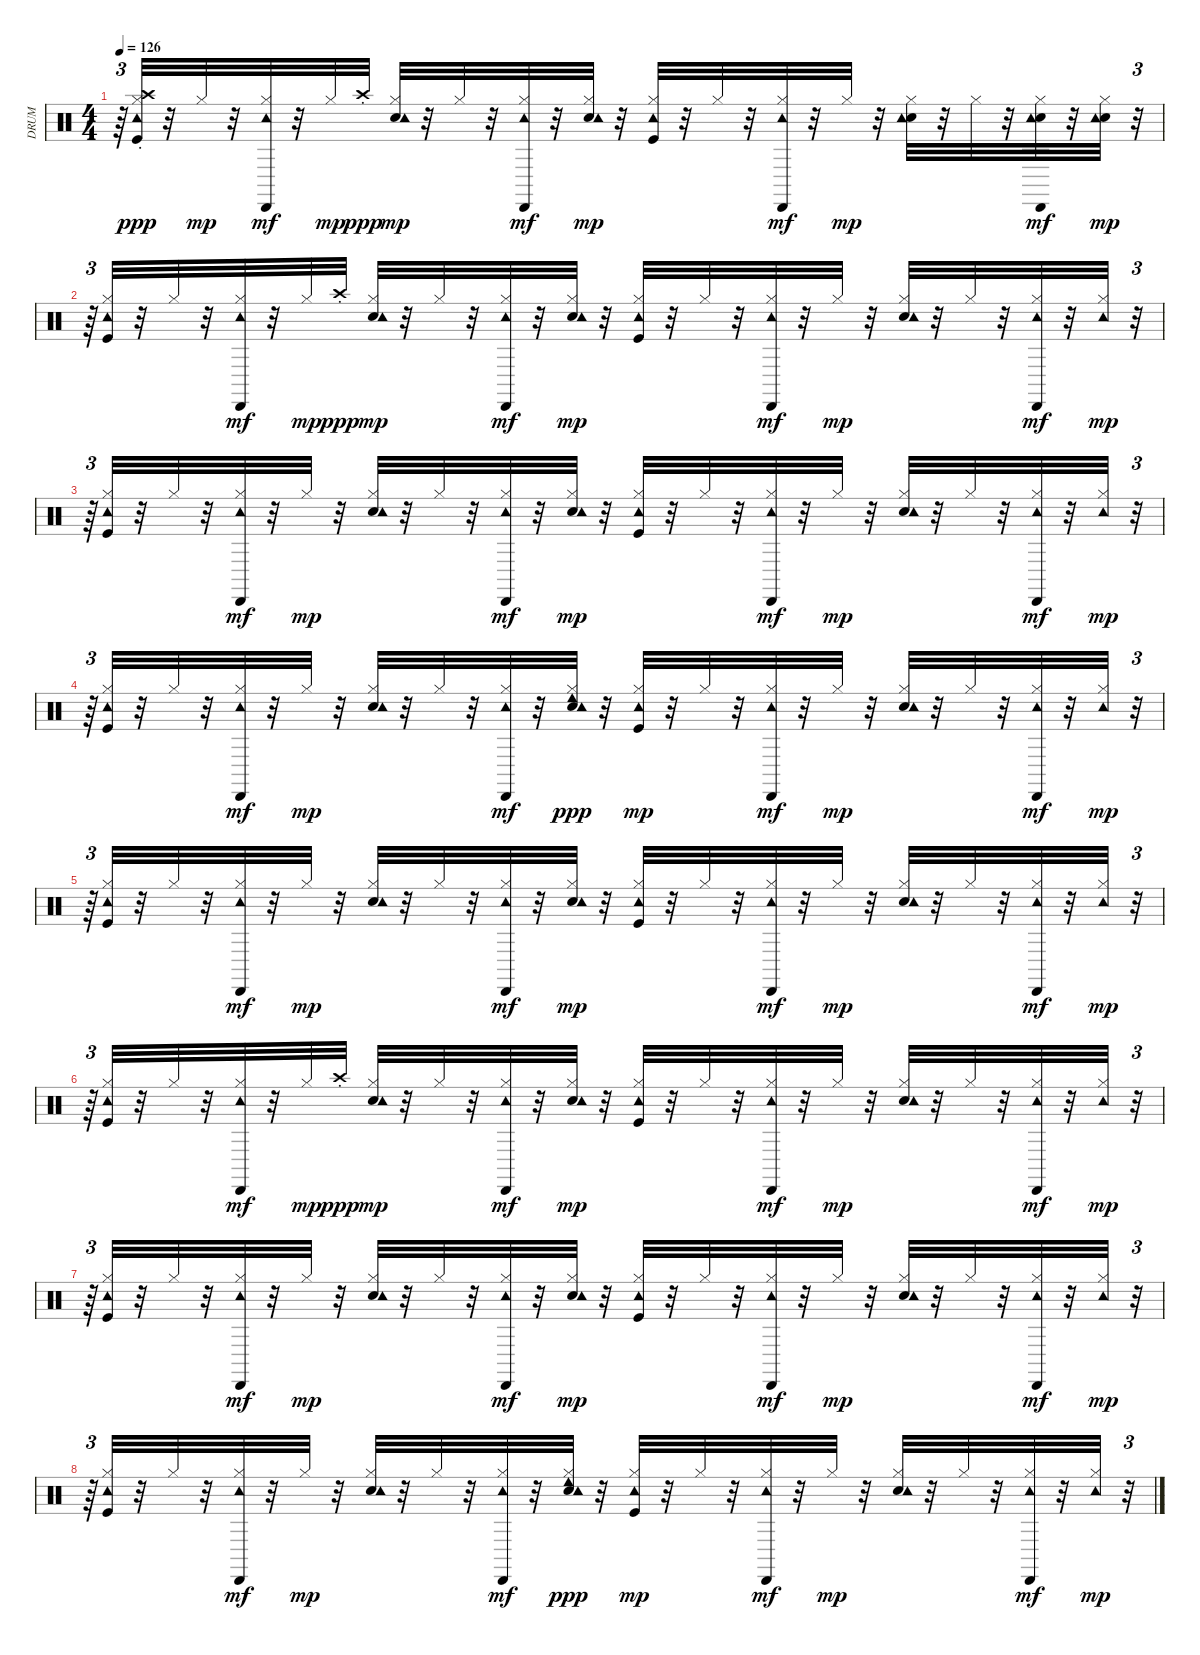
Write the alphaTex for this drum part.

\track ("DRUM" "DRUM") {instrument percussion}
\staff {score}
\articulation defaults
\ts (4 4)
\tempo 126
\clef neutral
\ks c
r.64{tu (3 2) dy mp} ("Kick (hit)" "Hi-Hat (closed)" "Tambourine (hit)" "Crash high (choke)").32{dy ppp} r.32 "Hi-Hat (closed)".32{dy mp} r.32 ("Hi-Hat (closed)" "Tambourine (hit)" "Cabasa (hit)").32{dy mf} r.32 "Hi-Hat (closed)".32{dy mp} "Crash high (choke)".32{dy ppp} ("Snare (hit) 2" "Hi-Hat (closed)" "Tambourine (hit)").32{dy mp} r.32 "Hi-Hat (closed)".32 r.32 ("Hi-Hat (closed)" "Tambourine (hit)" "Cabasa (hit)").32{dy mf} r.32 ("Snare (hit) 2" "Hi-Hat (closed)" "Tambourine (hit)").32{dy mp} r.32 ("Kick (hit)" "Hi-Hat (closed)" "Tambourine (hit)").32 r.32 "Hi-Hat (closed)".32 r.32 ("Hi-Hat (closed)" "Tambourine (hit)" "Cabasa (hit)").32{dy mf} r.32 "Hi-Hat (closed)".32{dy mp} r.32 ("Snare (hit) 2" "Hi-Hat (closed)" "Tambourine (hit)").32 r.32 "Hi-Hat (closed)".32 r.32 ("Snare (hit) 2" "Hi-Hat (closed)" "Tambourine (hit)" "Cabasa (hit)").32{dy mf} r.32 ("Snare (hit) 2" "Hi-Hat (closed)" "Tambourine (hit)").32{dy mp} r.32{tu (3 2)} |
r.64{tu (3 2)} ("Kick (hit)" "Hi-Hat (closed)" "Tambourine (hit)").32 r.32 "Hi-Hat (closed)".32 r.32 ("Hi-Hat (closed)" "Tambourine (hit)" "Cabasa (hit)").32{dy mf} r.32 "Hi-Hat (closed)".32{dy mp} "Crash high (choke)".32{dy ppp} ("Snare (hit) 2" "Hi-Hat (closed)" "Tambourine (hit)").32{dy mp} r.32 "Hi-Hat (closed)".32 r.32 ("Hi-Hat (closed)" "Tambourine (hit)" "Cabasa (hit)").32{dy mf} r.32 ("Snare (hit) 2" "Hi-Hat (closed)" "Tambourine (hit)").32{dy mp} r.32 ("Kick (hit)" "Hi-Hat (closed)" "Tambourine (hit)").32 r.32 "Hi-Hat (closed)".32 r.32 ("Hi-Hat (closed)" "Tambourine (hit)" "Cabasa (hit)").32{dy mf} r.32 "Hi-Hat (closed)".32{dy mp} r.32 ("Snare (hit) 2" "Hi-Hat (closed)" "Tambourine (hit)").32 r.32 "Hi-Hat (closed)".32 r.32 ("Hi-Hat (closed)" "Tambourine (hit)" "Cabasa (hit)").32{dy mf} r.32 ("Hi-Hat (closed)" "Tambourine (hit)").32{dy mp} r.32{tu (3 2)} |
r.64{tu (3 2)} ("Kick (hit)" "Hi-Hat (closed)" "Tambourine (hit)").32 r.32 "Hi-Hat (closed)".32 r.32 ("Hi-Hat (closed)" "Tambourine (hit)" "Cabasa (hit)").32{dy mf} r.32 "Hi-Hat (closed)".32{dy mp} r.32 ("Snare (hit) 2" "Hi-Hat (closed)" "Tambourine (hit)").32 r.32 "Hi-Hat (closed)".32 r.32 ("Hi-Hat (closed)" "Tambourine (hit)" "Cabasa (hit)").32{dy mf} r.32 ("Snare (hit) 2" "Hi-Hat (closed)" "Tambourine (hit)").32{dy mp} r.32 ("Kick (hit)" "Hi-Hat (closed)" "Tambourine (hit)").32 r.32 "Hi-Hat (closed)".32 r.32 ("Hi-Hat (closed)" "Tambourine (hit)" "Cabasa (hit)").32{dy mf} r.32 "Hi-Hat (closed)".32{dy mp} r.32 ("Snare (hit) 2" "Hi-Hat (closed)" "Tambourine (hit)").32 r.32 "Hi-Hat (closed)".32 r.32 ("Hi-Hat (closed)" "Tambourine (hit)" "Cabasa (hit)").32{dy mf} r.32 ("Hi-Hat (closed)" "Tambourine (hit)").32{dy mp} r.32{tu (3 2)} |
r.64{tu (3 2)} ("Kick (hit)" "Hi-Hat (closed)" "Tambourine (hit)").32 r.32 "Hi-Hat (closed)".32 r.32 ("Hi-Hat (closed)" "Tambourine (hit)" "Cabasa (hit)").32{dy mf} r.32 "Hi-Hat (closed)".32{dy mp} r.32 ("Snare (hit) 2" "Hi-Hat (closed)" "Tambourine (hit)").32 r.32 "Hi-Hat (closed)".32 r.32 ("Hi-Hat (closed)" "Tambourine (hit)" "Cabasa (hit)").32{dy mf} r.32 ("Snare (hit) 2" "Hi-Hat (closed)" "Tambourine (hit)" "Cowbell low (hit)").32{dy ppp} r.32 ("Kick (hit)" "Hi-Hat (closed)" "Tambourine (hit)").32{dy mp} r.32 "Hi-Hat (closed)".32 r.32 ("Hi-Hat (closed)" "Tambourine (hit)" "Cabasa (hit)").32{dy mf} r.32 "Hi-Hat (closed)".32{dy mp} r.32 ("Snare (hit) 2" "Hi-Hat (closed)" "Tambourine (hit)").32 r.32 "Hi-Hat (closed)".32 r.32 ("Hi-Hat (closed)" "Tambourine (hit)" "Cabasa (hit)").32{dy mf} r.32 ("Hi-Hat (closed)" "Tambourine (hit)").32{dy mp} r.32{tu (3 2)} |
r.64{tu (3 2)} ("Kick (hit)" "Hi-Hat (closed)" "Tambourine (hit)").32 r.32 "Hi-Hat (closed)".32 r.32 ("Hi-Hat (closed)" "Tambourine (hit)" "Cabasa (hit)").32{dy mf} r.32 "Hi-Hat (closed)".32{dy mp} r.32 ("Snare (hit) 2" "Hi-Hat (closed)" "Tambourine (hit)").32 r.32 "Hi-Hat (closed)".32 r.32 ("Hi-Hat (closed)" "Tambourine (hit)" "Cabasa (hit)").32{dy mf} r.32 ("Snare (hit) 2" "Hi-Hat (closed)" "Tambourine (hit)").32{dy mp} r.32 ("Kick (hit)" "Hi-Hat (closed)" "Tambourine (hit)").32 r.32 "Hi-Hat (closed)".32 r.32 ("Hi-Hat (closed)" "Tambourine (hit)" "Cabasa (hit)").32{dy mf} r.32 "Hi-Hat (closed)".32{dy mp} r.32 ("Snare (hit) 2" "Hi-Hat (closed)" "Tambourine (hit)").32 r.32 "Hi-Hat (closed)".32 r.32 ("Hi-Hat (closed)" "Tambourine (hit)" "Cabasa (hit)").32{dy mf} r.32 ("Hi-Hat (closed)" "Tambourine (hit)").32{dy mp} r.32{tu (3 2)} |
r.64{tu (3 2)} ("Kick (hit)" "Hi-Hat (closed)" "Tambourine (hit)").32 r.32 "Hi-Hat (closed)".32 r.32 ("Hi-Hat (closed)" "Tambourine (hit)" "Cabasa (hit)").32{dy mf} r.32 "Hi-Hat (closed)".32{dy mp} "Crash high (choke)".32{dy ppp} ("Snare (hit) 2" "Hi-Hat (closed)" "Tambourine (hit)").32{dy mp} r.32 "Hi-Hat (closed)".32 r.32 ("Hi-Hat (closed)" "Tambourine (hit)" "Cabasa (hit)").32{dy mf} r.32 ("Snare (hit) 2" "Hi-Hat (closed)" "Tambourine (hit)").32{dy mp} r.32 ("Kick (hit)" "Hi-Hat (closed)" "Tambourine (hit)").32 r.32 "Hi-Hat (closed)".32 r.32 ("Hi-Hat (closed)" "Tambourine (hit)" "Cabasa (hit)").32{dy mf} r.32 "Hi-Hat (closed)".32{dy mp} r.32 ("Snare (hit) 2" "Hi-Hat (closed)" "Tambourine (hit)").32 r.32 "Hi-Hat (closed)".32 r.32 ("Hi-Hat (closed)" "Tambourine (hit)" "Cabasa (hit)").32{dy mf} r.32 ("Hi-Hat (closed)" "Tambourine (hit)").32{dy mp} r.32{tu (3 2)} |
r.64{tu (3 2)} ("Kick (hit)" "Hi-Hat (closed)" "Tambourine (hit)").32 r.32 "Hi-Hat (closed)".32 r.32 ("Hi-Hat (closed)" "Tambourine (hit)" "Cabasa (hit)").32{dy mf} r.32 "Hi-Hat (closed)".32{dy mp} r.32 ("Snare (hit) 2" "Hi-Hat (closed)" "Tambourine (hit)").32 r.32 "Hi-Hat (closed)".32 r.32 ("Hi-Hat (closed)" "Tambourine (hit)" "Cabasa (hit)").32{dy mf} r.32 ("Snare (hit) 2" "Hi-Hat (closed)" "Tambourine (hit)").32{dy mp} r.32 ("Kick (hit)" "Hi-Hat (closed)" "Tambourine (hit)").32 r.32 "Hi-Hat (closed)".32 r.32 ("Hi-Hat (closed)" "Tambourine (hit)" "Cabasa (hit)").32{dy mf} r.32 "Hi-Hat (closed)".32{dy mp} r.32 ("Snare (hit) 2" "Hi-Hat (closed)" "Tambourine (hit)").32 r.32 "Hi-Hat (closed)".32 r.32 ("Hi-Hat (closed)" "Tambourine (hit)" "Cabasa (hit)").32{dy mf} r.32 ("Hi-Hat (closed)" "Tambourine (hit)").32{dy mp} r.32{tu (3 2)} |
r.64{tu (3 2)} ("Kick (hit)" "Hi-Hat (closed)" "Tambourine (hit)").32 r.32 "Hi-Hat (closed)".32 r.32 ("Hi-Hat (closed)" "Tambourine (hit)" "Cabasa (hit)").32{dy mf} r.32 "Hi-Hat (closed)".32{dy mp} r.32 ("Snare (hit) 2" "Hi-Hat (closed)" "Tambourine (hit)").32 r.32 "Hi-Hat (closed)".32 r.32 ("Hi-Hat (closed)" "Tambourine (hit)" "Cabasa (hit)").32{dy mf} r.32 ("Snare (hit) 2" "Hi-Hat (closed)" "Tambourine (hit)" "Cowbell low (hit)").32{dy ppp} r.32 ("Kick (hit)" "Hi-Hat (closed)" "Tambourine (hit)").32{dy mp} r.32 "Hi-Hat (closed)".32 r.32 ("Hi-Hat (closed)" "Tambourine (hit)" "Cabasa (hit)").32{dy mf} r.32 "Hi-Hat (closed)".32{dy mp} r.32 ("Snare (hit) 2" "Hi-Hat (closed)" "Tambourine (hit)").32 r.32 "Hi-Hat (closed)".32 r.32 ("Hi-Hat (closed)" "Tambourine (hit)" "Cabasa (hit)").32{dy mf} r.32 ("Hi-Hat (closed)" "Tambourine (hit)").32{dy mp} r.32{tu (3 2)}
